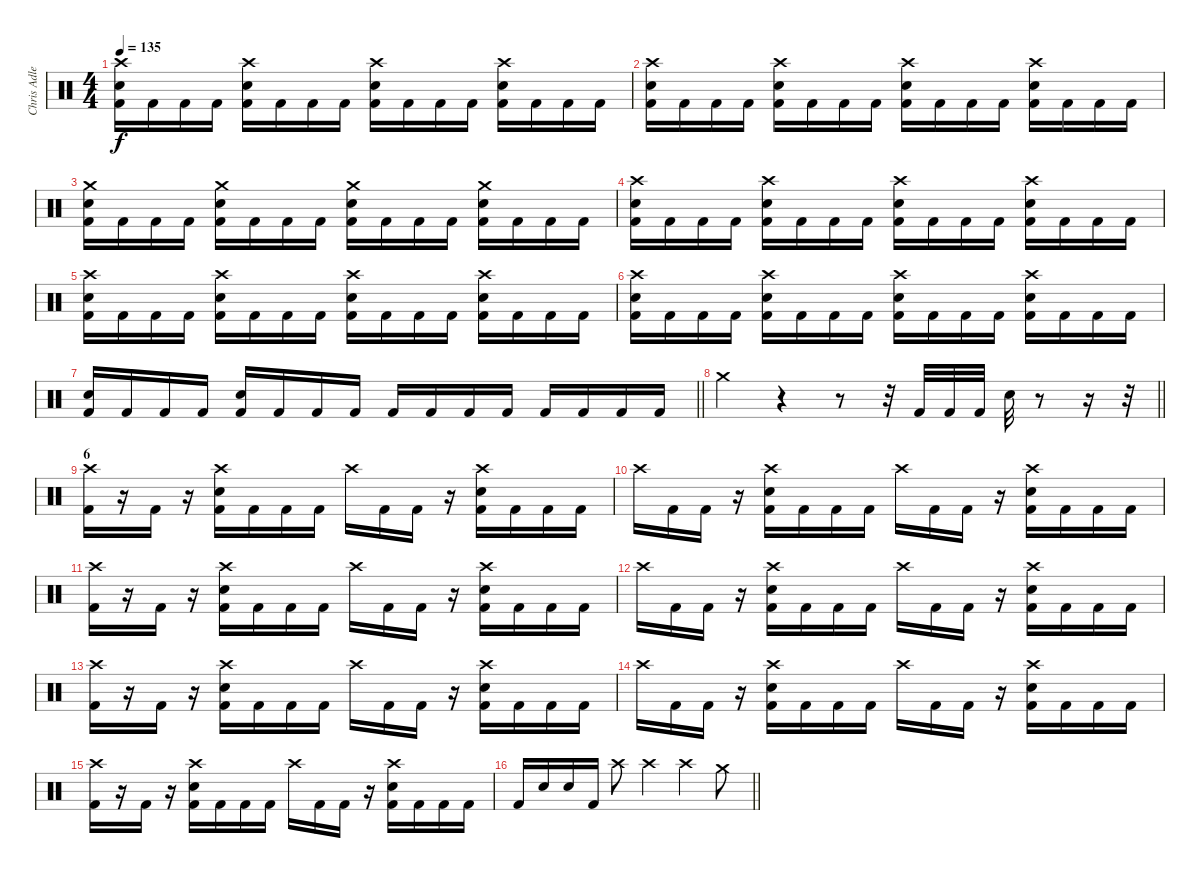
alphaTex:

\track ("Chris Adler" "Chris Adle") {instrument percussion}
\staff {score}
\articulation defaults
\ts (4 4)
\tempo 135
\clef neutral
\ks c
("Crash high (hit)" "Electric Snare (hit)" "Kick (hit) 2").16{dy f} "Kick (hit) 2".16 "Kick (hit) 2".16 "Kick (hit) 2".16 ("Crash high (hit)" "Electric Snare (hit)" "Kick (hit) 2").16 "Kick (hit) 2".16 "Kick (hit) 2".16 "Kick (hit) 2".16 ("Crash high (hit)" "Electric Snare (hit)" "Kick (hit) 2").16 "Kick (hit) 2".16 "Kick (hit) 2".16 "Kick (hit) 2".16 ("Crash high (hit)" "Electric Snare (hit)" "Kick (hit) 2").16 "Kick (hit) 2".16 "Kick (hit) 2".16 "Kick (hit) 2".16 |
("Crash high (hit)" "Electric Snare (hit)" "Kick (hit) 2").16 "Kick (hit) 2".16 "Kick (hit) 2".16 "Kick (hit) 2".16 ("Crash high (hit)" "Electric Snare (hit)" "Kick (hit) 2").16 "Kick (hit) 2".16 "Kick (hit) 2".16 "Kick (hit) 2".16 ("Crash high (hit)" "Electric Snare (hit)" "Kick (hit) 2").16 "Kick (hit) 2".16 "Kick (hit) 2".16 "Kick (hit) 2".16 ("Crash high (hit)" "Electric Snare (hit)" "Kick (hit) 2").16 "Kick (hit) 2".16 "Kick (hit) 2".16 "Kick (hit) 2".16 |
("Crash medium (hit)" "Electric Snare (hit)" "Kick (hit) 2").16 "Kick (hit) 2".16 "Kick (hit) 2".16 "Kick (hit) 2".16 ("Crash medium (hit)" "Electric Snare (hit)" "Kick (hit) 2").16 "Kick (hit) 2".16 "Kick (hit) 2".16 "Kick (hit) 2".16 ("Crash medium (hit)" "Electric Snare (hit)" "Kick (hit) 2").16 "Kick (hit) 2".16 "Kick (hit) 2".16 "Kick (hit) 2".16 ("Crash medium (hit)" "Electric Snare (hit)" "Kick (hit) 2").16 "Kick (hit) 2".16 "Kick (hit) 2".16 "Kick (hit) 2".16 |
("Crash high (hit)" "Electric Snare (hit)" "Kick (hit) 2").16 "Kick (hit) 2".16 "Kick (hit) 2".16 "Kick (hit) 2".16 ("Crash high (hit)" "Electric Snare (hit)" "Kick (hit) 2").16 "Kick (hit) 2".16 "Kick (hit) 2".16 "Kick (hit) 2".16 ("Crash high (hit)" "Electric Snare (hit)" "Kick (hit) 2").16 "Kick (hit) 2".16 "Kick (hit) 2".16 "Kick (hit) 2".16 ("Crash high (hit)" "Electric Snare (hit)" "Kick (hit) 2").16 "Kick (hit) 2".16 "Kick (hit) 2".16 "Kick (hit) 2".16 |
("Crash high (hit)" "Electric Snare (hit)" "Kick (hit) 2").16 "Kick (hit) 2".16 "Kick (hit) 2".16 "Kick (hit) 2".16 ("Crash high (hit)" "Electric Snare (hit)" "Kick (hit) 2").16 "Kick (hit) 2".16 "Kick (hit) 2".16 "Kick (hit) 2".16 ("Crash high (hit)" "Electric Snare (hit)" "Kick (hit) 2").16 "Kick (hit) 2".16 "Kick (hit) 2".16 "Kick (hit) 2".16 ("Crash high (hit)" "Electric Snare (hit)" "Kick (hit) 2").16 "Kick (hit) 2".16 "Kick (hit) 2".16 "Kick (hit) 2".16 |
("Crash high (hit)" "Electric Snare (hit)" "Kick (hit) 2").16 "Kick (hit) 2".16 "Kick (hit) 2".16 "Kick (hit) 2".16 ("Crash high (hit)" "Electric Snare (hit)" "Kick (hit) 2").16 "Kick (hit) 2".16 "Kick (hit) 2".16 "Kick (hit) 2".16 ("Crash high (hit)" "Electric Snare (hit)" "Kick (hit) 2").16 "Kick (hit) 2".16 "Kick (hit) 2".16 "Kick (hit) 2".16 ("Crash high (hit)" "Electric Snare (hit)" "Kick (hit) 2").16 "Kick (hit) 2".16 "Kick (hit) 2".16 "Kick (hit) 2".16 |
\barLineRight lightlight
("Electric Snare (hit)" "Kick (hit) 2").16 "Kick (hit) 2".16 "Kick (hit) 2".16 "Kick (hit) 2".16 ("Electric Snare (hit)" "Kick (hit) 2").16 "Kick (hit) 2".16 "Kick (hit) 2".16 "Kick (hit) 2".16 "Kick (hit) 2".16 "Kick (hit) 2".16 "Kick (hit) 2".16 "Kick (hit) 2".16 "Kick (hit) 2".16 "Kick (hit) 2".16 "Kick (hit) 2".16 "Kick (hit) 2".16 |
\barLineRight lightlight "Crash medium (hit)".4
r.4 r.8 r.32 "Kick (hit) 2".32 "Kick (hit) 2".32 "Kick (hit) 2".32 "Electric Snare (hit)".32 r.8 r.16 r.32 |
\section ("" "6")
("Crash high (hit)" "Kick (hit) 2").16 r.16 "Kick (hit) 2".16 r.16 ("Crash high (hit)" "Electric Snare (hit)" "Kick (hit) 2").16 "Kick (hit) 2".16 "Kick (hit) 2".16 "Kick (hit) 2".16 "Crash high (hit)".16 "Kick (hit) 2".16 "Kick (hit) 2".16 r.16 ("Crash high (hit)" "Electric Snare (hit)" "Kick (hit) 2").16 "Kick (hit) 2".16 "Kick (hit) 2".16 "Kick (hit) 2".16 |
"Crash high (hit)".16 "Kick (hit) 2".16 "Kick (hit) 2".16 r.16 ("Crash high (hit)" "Electric Snare (hit)" "Kick (hit) 2").16 "Kick (hit) 2".16 "Kick (hit) 2".16 "Kick (hit) 2".16 "Crash high (hit)".16 "Kick (hit) 2".16 "Kick (hit) 2".16 r.16 ("Crash high (hit)" "Electric Snare (hit)" "Kick (hit) 2").16 "Kick (hit) 2".16 "Kick (hit) 2".16 "Kick (hit) 2".16 |
("Crash high (hit)" "Kick (hit) 2").16 r.16 "Kick (hit) 2".16 r.16 ("Crash high (hit)" "Electric Snare (hit)" "Kick (hit) 2").16 "Kick (hit) 2".16 "Kick (hit) 2".16 "Kick (hit) 2".16 "Crash high (hit)".16 "Kick (hit) 2".16 "Kick (hit) 2".16 r.16 ("Crash high (hit)" "Electric Snare (hit)" "Kick (hit) 2").16 "Kick (hit) 2".16 "Kick (hit) 2".16 "Kick (hit) 2".16 |
"Crash high (hit)".16 "Kick (hit) 2".16 "Kick (hit) 2".16 r.16 ("Crash high (hit)" "Electric Snare (hit)" "Kick (hit) 2").16 "Kick (hit) 2".16 "Kick (hit) 2".16 "Kick (hit) 2".16 "Crash high (hit)".16 "Kick (hit) 2".16 "Kick (hit) 2".16 r.16 ("Crash high (hit)" "Electric Snare (hit)" "Kick (hit) 2").16 "Kick (hit) 2".16 "Kick (hit) 2".16 "Kick (hit) 2".16 |
("Crash high (hit)" "Kick (hit) 2").16 r.16 "Kick (hit) 2".16 r.16 ("Crash high (hit)" "Electric Snare (hit)" "Kick (hit) 2").16 "Kick (hit) 2".16 "Kick (hit) 2".16 "Kick (hit) 2".16 "Crash high (hit)".16 "Kick (hit) 2".16 "Kick (hit) 2".16 r.16 ("Crash high (hit)" "Electric Snare (hit)" "Kick (hit) 2").16 "Kick (hit) 2".16 "Kick (hit) 2".16 "Kick (hit) 2".16 |
"Crash high (hit)".16 "Kick (hit) 2".16 "Kick (hit) 2".16 r.16 ("Crash high (hit)" "Electric Snare (hit)" "Kick (hit) 2").16 "Kick (hit) 2".16 "Kick (hit) 2".16 "Kick (hit) 2".16 "Crash high (hit)".16 "Kick (hit) 2".16 "Kick (hit) 2".16 r.16 ("Crash high (hit)" "Electric Snare (hit)" "Kick (hit) 2").16 "Kick (hit) 2".16 "Kick (hit) 2".16 "Kick (hit) 2".16 |
("Crash high (hit)" "Kick (hit) 2").16 r.16 "Kick (hit) 2".16 r.16 ("Crash high (hit)" "Electric Snare (hit)" "Kick (hit) 2").16 "Kick (hit) 2".16 "Kick (hit) 2".16 "Kick (hit) 2".16 "Crash high (hit)".16 "Kick (hit) 2".16 "Kick (hit) 2".16 r.16 ("Crash high (hit)" "Electric Snare (hit)" "Kick (hit) 2").16 "Kick (hit) 2".16 "Kick (hit) 2".16 "Kick (hit) 2".16 |
\barLineRight lightlight "Kick (hit) 2".16 "Electric Snare (hit)".16 "Electric Snare (hit)".16 "Kick (hit) 2".16 "Crash high (hit)".8 "Crash high (hit)".4 "Crash high (hit)".4 "Crash medium (hit)".8
